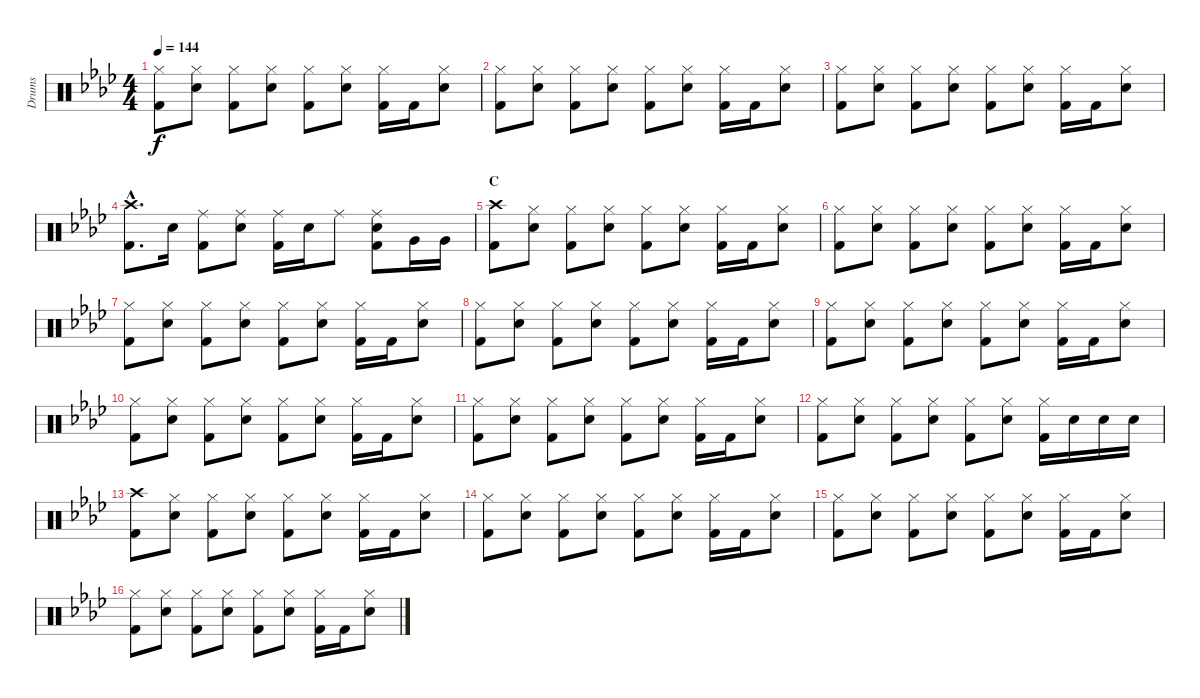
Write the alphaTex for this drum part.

\track ("Drums" "Drums") {instrument percussion}
\staff {score}
\articulation defaults
\ts (4 4)
\tempo 144
\clef neutral
\ks ab
("Hi-Hat (closed)" "Kick (hit) 2").8{dy f} ("Hi-Hat (closed)" "Snare (hit) 2").8 ("Hi-Hat (closed)" "Kick (hit) 2").8 ("Hi-Hat (closed)" "Snare (hit) 2").8 ("Hi-Hat (closed)" "Kick (hit) 2").8 ("Hi-Hat (closed)" "Snare (hit) 2").8 ("Hi-Hat (closed)" "Kick (hit) 2").16 "Kick (hit) 2".16 ("Hi-Hat (closed)" "Snare (hit) 2").8 |
("Hi-Hat (closed)" "Kick (hit) 2").8 ("Hi-Hat (closed)" "Snare (hit) 2").8 ("Hi-Hat (closed)" "Kick (hit) 2").8 ("Hi-Hat (closed)" "Snare (hit) 2").8 ("Hi-Hat (closed)" "Kick (hit) 2").8 ("Hi-Hat (closed)" "Snare (hit) 2").8 ("Hi-Hat (closed)" "Kick (hit) 2").16 "Kick (hit) 2".16 ("Hi-Hat (closed)" "Snare (hit) 2").8 |
("Hi-Hat (closed)" "Kick (hit) 2").8 ("Hi-Hat (closed)" "Snare (hit) 2").8 ("Hi-Hat (closed)" "Kick (hit) 2").8 ("Hi-Hat (closed)" "Snare (hit) 2").8 ("Hi-Hat (closed)" "Kick (hit) 2").8 ("Hi-Hat (closed)" "Snare (hit) 2").8 ("Hi-Hat (closed)" "Kick (hit) 2").16 "Kick (hit) 2".16 ("Hi-Hat (closed)" "Snare (hit) 2").8 |
("Crash high (hit)"{hac} "Kick (hit) 2"{hac}).8{d} "Snare (hit) 2".16 ("Ride (middle)" "Kick (hit) 2").8 ("Ride (middle)" "Snare (hit) 2").8 ("Ride (middle)" "Kick (hit) 2").16 "Snare (hit) 2".16 "Ride (middle)".8 ("Ride (middle)" "Snare (hit) 2" "Kick (hit) 2").8 "Very Low Tom (hit)".16 "Very Low Tom (hit)".16 |
\section ("" "C")
("Crash high (hit)" "Kick (hit) 2").8 ("Hi-Hat (closed)" "Snare (hit) 2").8 ("Hi-Hat (closed)" "Kick (hit) 2").8 ("Hi-Hat (closed)" "Snare (hit) 2").8 ("Hi-Hat (closed)" "Kick (hit) 2").8 ("Hi-Hat (closed)" "Snare (hit) 2").8 ("Hi-Hat (closed)" "Kick (hit) 2").16 "Kick (hit) 2".16 ("Hi-Hat (closed)" "Snare (hit) 2").8 |
("Hi-Hat (closed)" "Kick (hit) 2").8 ("Hi-Hat (closed)" "Snare (hit) 2").8 ("Hi-Hat (closed)" "Kick (hit) 2").8 ("Hi-Hat (closed)" "Snare (hit) 2").8 ("Hi-Hat (closed)" "Kick (hit) 2").8 ("Hi-Hat (closed)" "Snare (hit) 2").8 ("Hi-Hat (closed)" "Kick (hit) 2").16 "Kick (hit) 2".16 ("Hi-Hat (closed)" "Snare (hit) 2").8 |
("Hi-Hat (closed)" "Kick (hit) 2").8 ("Hi-Hat (closed)" "Snare (hit) 2").8 ("Hi-Hat (closed)" "Kick (hit) 2").8 ("Hi-Hat (closed)" "Snare (hit) 2").8 ("Hi-Hat (closed)" "Kick (hit) 2").8 ("Hi-Hat (closed)" "Snare (hit) 2").8 ("Hi-Hat (closed)" "Kick (hit) 2").16 "Kick (hit) 2".16 ("Hi-Hat (closed)" "Snare (hit) 2").8 |
("Hi-Hat (closed)" "Kick (hit) 2").8 ("Hi-Hat (closed)" "Snare (hit) 2").8 ("Hi-Hat (closed)" "Kick (hit) 2").8 ("Hi-Hat (closed)" "Snare (hit) 2").8 ("Hi-Hat (closed)" "Kick (hit) 2").8 ("Hi-Hat (closed)" "Snare (hit) 2").8 ("Hi-Hat (closed)" "Kick (hit) 2").16 "Kick (hit) 2".16 ("Hi-Hat (closed)" "Snare (hit) 2").8 |
("Hi-Hat (closed)" "Kick (hit) 2").8 ("Hi-Hat (closed)" "Snare (hit) 2").8 ("Hi-Hat (closed)" "Kick (hit) 2").8 ("Hi-Hat (closed)" "Snare (hit) 2").8 ("Hi-Hat (closed)" "Kick (hit) 2").8 ("Hi-Hat (closed)" "Snare (hit) 2").8 ("Hi-Hat (closed)" "Kick (hit) 2").16 "Kick (hit) 2".16 ("Hi-Hat (closed)" "Snare (hit) 2").8 |
("Hi-Hat (closed)" "Kick (hit) 2").8 ("Hi-Hat (closed)" "Snare (hit) 2").8 ("Hi-Hat (closed)" "Kick (hit) 2").8 ("Hi-Hat (closed)" "Snare (hit) 2").8 ("Hi-Hat (closed)" "Kick (hit) 2").8 ("Hi-Hat (closed)" "Snare (hit) 2").8 ("Hi-Hat (closed)" "Kick (hit) 2").16 "Kick (hit) 2".16 ("Hi-Hat (closed)" "Snare (hit) 2").8 |
("Hi-Hat (closed)" "Kick (hit) 2").8 ("Hi-Hat (closed)" "Snare (hit) 2").8 ("Hi-Hat (closed)" "Kick (hit) 2").8 ("Hi-Hat (closed)" "Snare (hit) 2").8 ("Hi-Hat (closed)" "Kick (hit) 2").8 ("Hi-Hat (closed)" "Snare (hit) 2").8 ("Hi-Hat (closed)" "Kick (hit) 2").16 "Kick (hit) 2".16 ("Hi-Hat (closed)" "Snare (hit) 2").8 |
("Hi-Hat (closed)" "Kick (hit) 2").8 ("Hi-Hat (closed)" "Snare (hit) 2").8 ("Hi-Hat (closed)" "Kick (hit) 2").8 ("Hi-Hat (closed)" "Snare (hit) 2").8 ("Hi-Hat (closed)" "Kick (hit) 2").8 ("Hi-Hat (closed)" "Snare (hit) 2").8 ("Hi-Hat (closed)" "Kick (hit) 2").16 "Snare (hit) 2".16 "Snare (hit) 2".16 "Snare (hit) 2".16 |
("Crash high (hit)" "Kick (hit) 2").8 ("Hi-Hat (closed)" "Snare (hit) 2").8 ("Hi-Hat (closed)" "Kick (hit) 2").8 ("Hi-Hat (closed)" "Snare (hit) 2").8 ("Hi-Hat (closed)" "Kick (hit) 2").8 ("Hi-Hat (closed)" "Snare (hit) 2").8 ("Hi-Hat (closed)" "Kick (hit) 2").16 "Kick (hit) 2".16 ("Hi-Hat (closed)" "Snare (hit) 2").8 |
("Hi-Hat (closed)" "Kick (hit) 2").8 ("Hi-Hat (closed)" "Snare (hit) 2").8 ("Hi-Hat (closed)" "Kick (hit) 2").8 ("Hi-Hat (closed)" "Snare (hit) 2").8 ("Hi-Hat (closed)" "Kick (hit) 2").8 ("Hi-Hat (closed)" "Snare (hit) 2").8 ("Hi-Hat (closed)" "Kick (hit) 2").16 "Kick (hit) 2".16 ("Hi-Hat (closed)" "Snare (hit) 2").8 |
("Hi-Hat (closed)" "Kick (hit) 2").8 ("Hi-Hat (closed)" "Snare (hit) 2").8 ("Hi-Hat (closed)" "Kick (hit) 2").8 ("Hi-Hat (closed)" "Snare (hit) 2").8 ("Hi-Hat (closed)" "Kick (hit) 2").8 ("Hi-Hat (closed)" "Snare (hit) 2").8 ("Hi-Hat (closed)" "Kick (hit) 2").16 "Kick (hit) 2".16 ("Hi-Hat (closed)" "Snare (hit) 2").8 |
("Hi-Hat (closed)" "Kick (hit) 2").8 ("Hi-Hat (closed)" "Snare (hit) 2").8 ("Hi-Hat (closed)" "Kick (hit) 2").8 ("Hi-Hat (closed)" "Snare (hit) 2").8 ("Hi-Hat (closed)" "Kick (hit) 2").8 ("Hi-Hat (closed)" "Snare (hit) 2").8 ("Hi-Hat (closed)" "Kick (hit) 2").16 "Kick (hit) 2".16 ("Hi-Hat (closed)" "Snare (hit) 2").8
